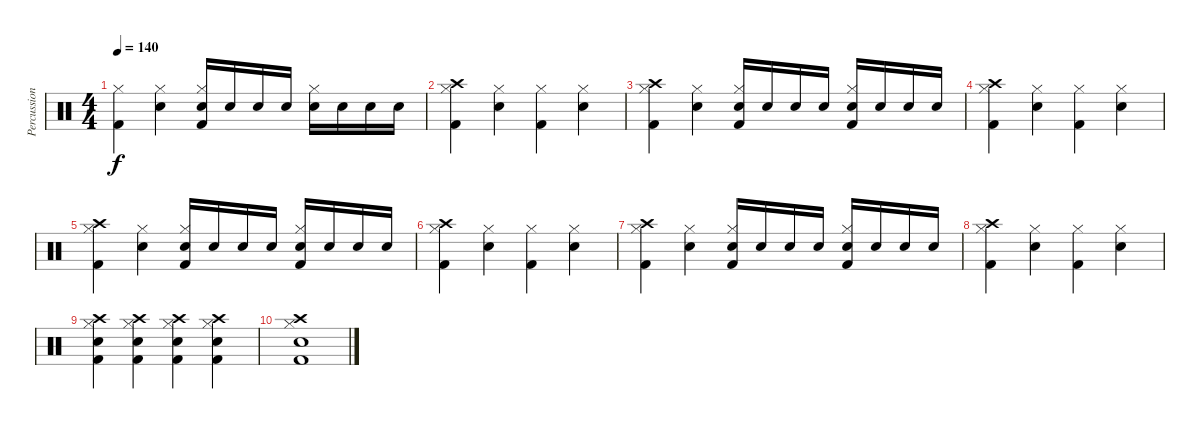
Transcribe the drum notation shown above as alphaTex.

\track ("Percussions" "Percussion") {instrument percussion}
\staff {score}
\articulation defaults
\ts (4 4)
\tempo 140
\clef neutral
\ks c
("Kick (hit) 2" "Hi-Hat (closed)").4{dy f} ("Snare (hit) 2" "Hi-Hat (closed)").4 ("Kick (hit) 2" "Snare (hit) 2" "Hi-Hat (closed)").16 "Snare (hit) 2".16 "Snare (hit) 2".16 "Snare (hit) 2".16 ("Snare (hit) 2" "Hi-Hat (closed)").16 "Snare (hit) 2".16 "Snare (hit) 2".16 "Snare (hit) 2".16 |
("Kick (hit) 2" "Crash high (hit)" "Hi-Hat (closed)").4 ("Snare (hit) 2" "Hi-Hat (closed)").4 ("Kick (hit) 2" "Hi-Hat (closed)").4 ("Snare (hit) 2" "Hi-Hat (closed)").4 |
("Kick (hit) 2" "Crash high (hit)" "Hi-Hat (closed)").4 ("Snare (hit) 2" "Hi-Hat (closed)").4 ("Kick (hit) 2" "Snare (hit) 2" "Hi-Hat (closed)").16 "Snare (hit) 2".16 "Snare (hit) 2".16 "Snare (hit) 2".16 ("Kick (hit) 2" "Snare (hit) 2" "Hi-Hat (closed)").16 "Snare (hit) 2".16 "Snare (hit) 2".16 "Snare (hit) 2".16 |
("Kick (hit) 2" "Crash high (hit)" "Hi-Hat (closed)").4 ("Snare (hit) 2" "Hi-Hat (closed)").4 ("Kick (hit) 2" "Hi-Hat (closed)").4 ("Snare (hit) 2" "Hi-Hat (closed)").4 |
("Kick (hit) 2" "Crash high (hit)" "Hi-Hat (closed)").4 ("Snare (hit) 2" "Hi-Hat (closed)").4 ("Kick (hit) 2" "Snare (hit) 2" "Hi-Hat (closed)").16 "Snare (hit) 2".16 "Snare (hit) 2".16 "Snare (hit) 2".16 ("Kick (hit) 2" "Snare (hit) 2" "Hi-Hat (closed)").16 "Snare (hit) 2".16 "Snare (hit) 2".16 "Snare (hit) 2".16 |
("Kick (hit) 2" "Crash high (hit)" "Hi-Hat (closed)").4 ("Snare (hit) 2" "Hi-Hat (closed)").4 ("Kick (hit) 2" "Hi-Hat (closed)").4 ("Snare (hit) 2" "Hi-Hat (closed)").4 |
("Kick (hit) 2" "Crash high (hit)" "Hi-Hat (closed)").4 ("Snare (hit) 2" "Hi-Hat (closed)").4 ("Kick (hit) 2" "Snare (hit) 2" "Hi-Hat (closed)").16 "Snare (hit) 2".16 "Snare (hit) 2".16 "Snare (hit) 2".16 ("Kick (hit) 2" "Snare (hit) 2" "Hi-Hat (closed)").16 "Snare (hit) 2".16 "Snare (hit) 2".16 "Snare (hit) 2".16 |
("Kick (hit) 2" "Crash high (hit)" "Hi-Hat (closed)").4 ("Snare (hit) 2" "Hi-Hat (closed)").4 ("Kick (hit) 2" "Hi-Hat (closed)").4 ("Snare (hit) 2" "Hi-Hat (closed)").4 |
("Kick (hit) 2" "Snare (hit) 2" "Crash high (hit)" "Hi-Hat (closed)").4 ("Kick (hit) 2" "Snare (hit) 2" "Crash high (hit)" "Hi-Hat (closed)").4 ("Kick (hit) 2" "Snare (hit) 2" "Crash high (hit)" "Hi-Hat (closed)").4 ("Kick (hit) 2" "Snare (hit) 2" "Crash high (hit)" "Hi-Hat (closed)").4 |
("Kick (hit) 2" "Snare (hit) 2" "Crash high (hit)" "Hi-Hat (closed)").1
